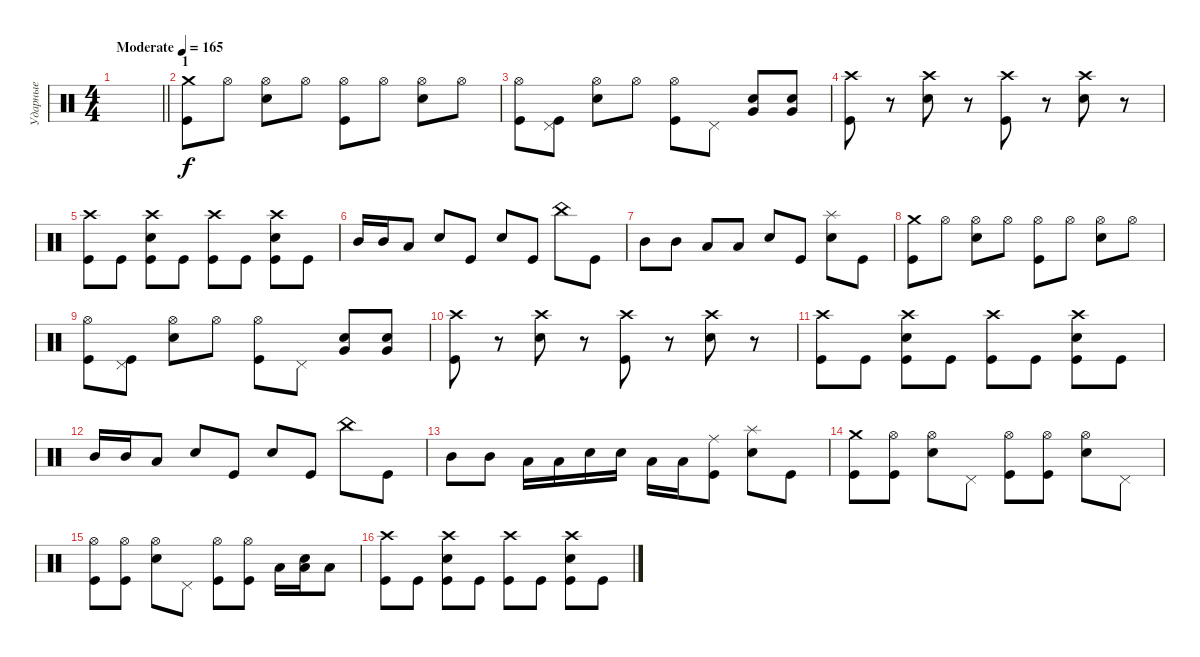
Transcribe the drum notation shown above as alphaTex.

\track ("Ударные" "Ударные") {instrument percussion}
\staff {score}
\articulation defaults
\ts (4 4)
\tempo (165 "Moderate")
\clef neutral
\barLineRight lightlight
\ks c
|
\section ("" "1")
("Crash medium (hit)" "Kick (hit)").8 "Hi-Hat (open)".8 ("Hi-Hat (open)" "Electric Snare (hit)").8 "Hi-Hat (open)".8 ("Hi-Hat (open)" "Kick (hit)").8 "Hi-Hat (open)".8 ("Hi-Hat (open)" "Electric Snare (hit)").8 "Hi-Hat (open)".8 |
("Hi-Hat (open)" "Kick (hit)").8 ("Pedal Hi-Hat (hit)" "Kick (hit)").8 ("Hi-Hat (open)" "Electric Snare (hit)").8 "Hi-Hat (open)".8 ("Hi-Hat (open)" "Kick (hit)").8 "Pedal Hi-Hat (hit)".8 ("Very Low Tom (hit)" "Electric Snare (hit)").8 ("Very Low Tom (hit)" "Electric Snare (hit)").8 |
("Crash high (hit)" "Kick (hit)").8 r.8 ("Crash high (hit)" "Electric Snare (hit)").8 r.8 ("Crash high (hit)" "Kick (hit)").8 r.8 ("Crash high (hit)" "Electric Snare (hit)").8 r.8 |
("Crash high (hit)" "Kick (hit)").8 "Kick (hit)".8 ("Crash high (hit)" "Electric Snare (hit)" "Kick (hit)").8 "Kick (hit)".8 ("Crash high (hit)" "Kick (hit)").8 "Kick (hit)".8 ("Crash high (hit)" "Electric Snare (hit)" "Kick (hit)").8 "Kick (hit)".8 |
"Mid Tom (hit)".16 "Mid Tom (hit)".16 "Low Tom (hit)".8 "Electric Snare (hit)".8 "Kick (hit)".8 "Electric Snare (hit)".8 "Kick (hit)".8 "China (hit)".8 "Kick (hit)".8 |
"Mid Tom (hit)".8 "Mid Tom (hit)".8 "Low Tom (hit)".8 "Low Tom (hit)".8 "Electric Snare (hit)".8 "Kick (hit)".8 ("Splash (hit)" "Electric Snare (hit)").8 "Kick (hit)".8 |
("Crash medium (hit)" "Kick (hit)").8 "Hi-Hat (open)".8 ("Hi-Hat (open)" "Electric Snare (hit)").8 "Hi-Hat (open)".8 ("Hi-Hat (open)" "Kick (hit)").8 "Hi-Hat (open)".8 ("Hi-Hat (open)" "Electric Snare (hit)").8 "Hi-Hat (open)".8 |
("Hi-Hat (open)" "Kick (hit)").8 ("Pedal Hi-Hat (hit)" "Kick (hit)").8 ("Hi-Hat (open)" "Electric Snare (hit)").8 "Hi-Hat (open)".8 ("Hi-Hat (open)" "Kick (hit)").8 "Pedal Hi-Hat (hit)".8 ("Very Low Tom (hit)" "Electric Snare (hit)").8 ("Very Low Tom (hit)" "Electric Snare (hit)").8 |
("Crash high (hit)" "Kick (hit)").8 r.8 ("Crash high (hit)" "Electric Snare (hit)").8 r.8 ("Crash high (hit)" "Kick (hit)").8 r.8 ("Crash high (hit)" "Electric Snare (hit)").8 r.8 |
("Crash high (hit)" "Kick (hit)").8 "Kick (hit)".8 ("Crash high (hit)" "Electric Snare (hit)" "Kick (hit)").8 "Kick (hit)".8 ("Crash high (hit)" "Kick (hit)").8 "Kick (hit)".8 ("Crash high (hit)" "Electric Snare (hit)" "Kick (hit)").8 "Kick (hit)".8 |
"Mid Tom (hit)".16 "Mid Tom (hit)".16 "Low Tom (hit)".8 "Electric Snare (hit)".8 "Kick (hit)".8 "Electric Snare (hit)".8 "Kick (hit)".8 "China (hit)".8 "Kick (hit)".8 |
"Mid Tom (hit)".8 "Mid Tom (hit)".8 "Low Tom (hit)".16 "Low Tom (hit)".16 "Electric Snare (hit)".16 "Electric Snare (hit)".16 "Low Tom (hit)".16 "Low Tom (hit)".16 ("Ride (middle)" "Kick (hit)").8 ("Splash (hit)" "Electric Snare (hit)").8 "Kick (hit)".8 |
("Crash medium (hit)" "Kick (hit)").8 ("Hi-Hat (open)" "Kick (hit)").8 ("Hi-Hat (open)" "Electric Snare (hit)").8 "Pedal Hi-Hat (hit)".8 ("Hi-Hat (open)" "Kick (hit)").8 ("Hi-Hat (open)" "Kick (hit)").8 ("Hi-Hat (open)" "Electric Snare (hit)").8 "Pedal Hi-Hat (hit)".8 |
("Hi-Hat (open)" "Kick (hit)").8 ("Hi-Hat (open)" "Kick (hit)").8 ("Hi-Hat (open)" "Electric Snare (hit)").8 "Pedal Hi-Hat (hit)".8 ("Hi-Hat (open)" "Kick (hit)").8 ("Hi-Hat (open)" "Kick (hit)").8 "Low Tom (hit)".16 ("Low Tom (hit)" "Electric Snare (hit)").16 "Low Tom (hit)".8 |
("Crash high (hit)" "Kick (hit)").8 "Kick (hit)".8 ("Crash high (hit)" "Electric Snare (hit)" "Kick (hit)").8 "Kick (hit)".8 ("Crash high (hit)" "Kick (hit)").8 "Kick (hit)".8 ("Crash high (hit)" "Electric Snare (hit)" "Kick (hit)").8 "Kick (hit)".8
